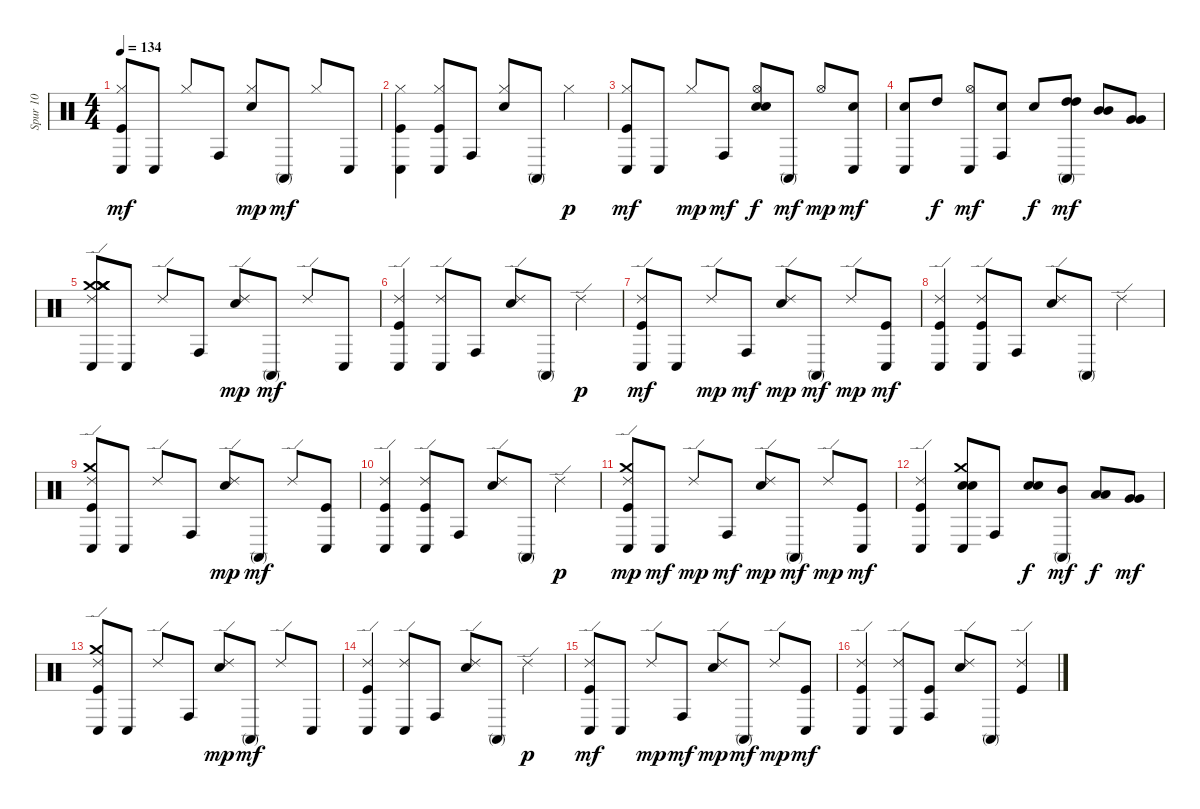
\track ("Spur 10" "Spur 10") {instrument percussion}
\staff {score}
\articulation defaults
\ts (4 4)
\tempo 134
\clef neutral
\ks c
("Kick (hit)" "Conga low (hit)" "Hi-Hat (closed)").8{dy mf} "Conga low (hit)".8 "Hi-Hat (closed)".8 "Conga high (hit)".8 ("Electric Snare (hit)" "Hi-Hat (closed)").8{dy mp} "Conga high (mute)".8{dy mf} "Hi-Hat (closed)".8 "Conga low (hit)".8 |
("Kick (hit)" "Hi-Hat (closed)" "Conga low (hit)").4 ("Hi-Hat (closed)" "Conga low (hit)" "Kick (hit)").8 "Conga high (hit)".8 ("Electric Snare (hit)" "Hi-Hat (closed)").8 "Conga high (mute)".8 "Hi-Hat (closed)".4{dy p} |
("Kick (hit)" "Hi-Hat (closed)" "Conga low (hit)").8{dy mf} "Conga low (hit)".8 "Hi-Hat (closed)".8{dy mp} "Conga high (hit)".8{dy mf} ("Hi-Hat (open)" "Electric Snare (hit)" "Electric Snare (hit)").8{dy f} "Conga high (mute)".8{dy mf} "Hi-Hat (open)".8{dy mp} ("Electric Snare (hit)" "Conga low (hit)").8{dy mf} |
("Electric Snare (hit)" "Conga low (hit)").8 "High Tom (hit)".8{dy f} ("Conga low (hit)" "Hi-Hat (open)").8{dy mf} ("Electric Snare (hit)" "Conga high (hit)").8 "Electric Snare (hit)".8{dy f} ("Conga high (mute)" "High Tom (hit)" "High Tom (hit)").8{dy mf} ("Mid Tom (hit)" "Mid Tom (hit)").8 ("Very Low Tom (hit)" "Very Low Tom (hit)").8 |
("Crash medium (hit)" "Ride (edge) 2" "Crash medium (hit)" "Crash medium (hit)" "Conga low (hit)" "Crash medium (hit)").8 "Conga low (hit)".8 "Ride (edge) 2".8 "Conga high (hit)".8 ("Ride (edge) 2" "Electric Snare (hit)").8{dy mp} "Conga high (mute)".8{dy mf} "Ride (edge) 2".8 "Conga low (hit)".8 |
("Ride (edge) 2" "Conga low (hit)" "Kick (hit)").4 ("Ride (edge) 2" "Conga low (hit)").8 "Conga high (hit)".8 ("Ride (edge) 2" "Electric Snare (hit)").8 "Conga high (mute)".8 "Ride (edge) 2".4{dy p} |
("Ride (edge) 2" "Kick (hit)" "Conga low (hit)").8{dy mf} "Conga low (hit)".8 "Ride (edge) 2".8{dy mp} "Conga high (hit)".8{dy mf} ("Ride (edge) 2" "Electric Snare (hit)").8{dy mp} "Conga high (mute)".8{dy mf} "Ride (edge) 2".8{dy mp} ("Conga low (hit)" "Kick (hit)").8{dy mf} |
("Ride (edge) 2" "Kick (hit)" "Conga low (hit)").4 ("Ride (edge) 2" "Kick (hit)" "Conga low (hit)").8 "Conga high (hit)".8 ("Ride (edge) 2" "Electric Snare (hit)").8 "Conga high (mute)".8 "Ride (edge) 2".4 |
("Kick (hit)" "Conga low (hit)" "Ride (edge) 2" "Crash medium (hit)").8 "Conga low (hit)".8 "Ride (edge) 2".8 "Conga high (hit)".8 ("Electric Snare (hit)" "Ride (edge) 2").8{dy mp} "Conga high (mute)".8{dy mf} "Ride (edge) 2".8 ("Conga low (hit)" "Kick (hit)").8 |
("Kick (hit)" "Ride (edge) 2" "Conga low (hit)").4 ("Conga low (hit)" "Ride (edge) 2" "Kick (hit)").8 "Conga high (hit)".8 ("Electric Snare (hit)" "Ride (edge) 2").8 "Conga high (mute)".8 "Ride (edge) 2".4{dy p} |
("Kick (hit)" "Ride (edge) 2" "Conga low (hit)" "Crash medium (hit)").8{dy mp} "Conga low (hit)".8{dy mf} "Ride (edge) 2".8{dy mp} "Conga high (hit)".8{dy mf} ("Electric Snare (hit)" "Ride (edge) 2").8{dy mp} "Conga high (mute)".8{dy mf} "Ride (edge) 2".8{dy mp} ("Conga low (hit)" "Kick (hit)").8{dy mf} |
("Kick (hit)" "Ride (edge) 2" "Conga low (hit)").4 ("Electric Snare (hit)" "Conga low (hit)" "Crash medium (hit)" "Electric Snare (hit)").8{volume 16 balance 8} "Conga high (hit)".8 ("Electric Snare (hit)" "Electric Snare (hit)").8{dy f} ("Conga high (mute)" "Mid Tom (hit)").8{dy mf} ("Low Tom (hit)" "Low Tom (hit)").8{dy f} ("Very Low Tom (hit)" "Very Low Tom (hit)").8{dy mf} |
("Crash medium (hit)" "Ride (edge) 2" "Kick (hit)" "Conga low (hit)").8 "Conga low (hit)".8 "Ride (edge) 2".8 "Conga high (hit)".8 ("Ride (edge) 2" "Electric Snare (hit)").8{dy mp} "Conga high (mute)".8{dy mf} "Ride (edge) 2".8 "Conga low (hit)".8 |
("Ride (edge) 2" "Kick (hit)" "Conga low (hit)").4 ("Ride (edge) 2" "Conga low (hit)").8 "Conga high (hit)".8 ("Ride (edge) 2" "Electric Snare (hit)").8 "Conga high (mute)".8 "Ride (edge) 2".4{dy p} |
("Ride (edge) 2" "Kick (hit)" "Conga low (hit)").8{dy mf} "Conga low (hit)".8 "Ride (edge) 2".8{dy mp} "Conga high (hit)".8{dy mf} ("Ride (edge) 2" "Electric Snare (hit)").8{dy mp} "Conga high (mute)".8{dy mf} "Ride (edge) 2".8{dy mp} ("Conga low (hit)" "Kick (hit)").8{dy mf} |
("Ride (edge) 2" "Conga low (hit)" "Kick (hit)").4 ("Ride (edge) 2" "Conga low (hit)").8 ("Conga high (hit)" "Kick (hit)").8 ("Ride (edge) 2" "Electric Snare (hit)").8 "Conga high (mute)".8 ("Ride (edge) 2" "Kick (hit)").4
